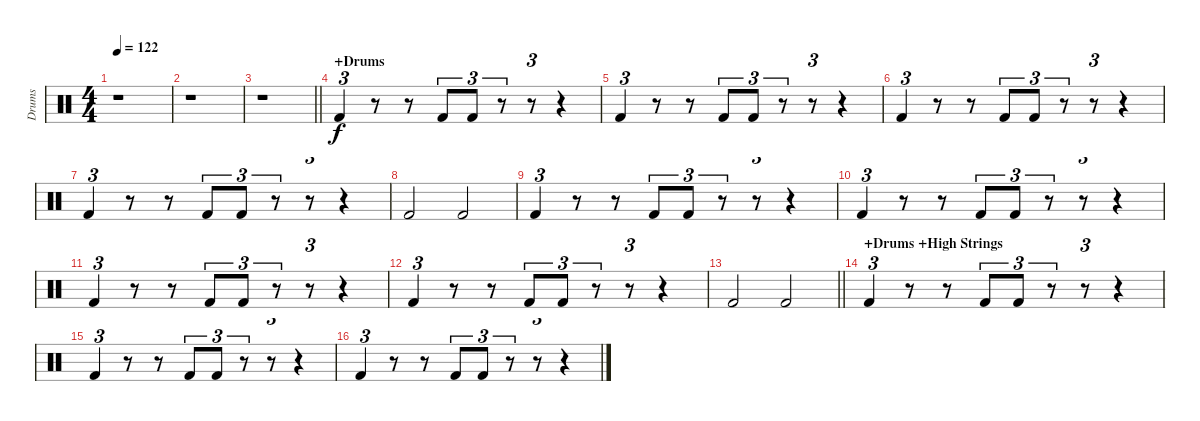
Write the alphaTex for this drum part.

\track ("Drums" "Drums") {instrument percussion}
\staff {score}
\articulation defaults
\ts (4 4)
\tempo 122
\clef neutral
\ks c
r.1{dy f} |
r.1 |
\barLineRight lightlight
r.1 |
\section ("" "+Drums")
"Kick (hit) 2".4{tu (3 2)} r.8 r.8 "Kick (hit) 2".8{tu (3 2)} "Kick (hit) 2".8{tu (3 2)} r.8{tu (3 2)} r.8{tu (3 2)} r.4 |
"Kick (hit) 2".4{tu (3 2)} r.8 r.8 "Kick (hit) 2".8{tu (3 2)} "Kick (hit) 2".8{tu (3 2)} r.8{tu (3 2)} r.8{tu (3 2)} r.4 |
"Kick (hit) 2".4{tu (3 2)} r.8 r.8 "Kick (hit) 2".8{tu (3 2)} "Kick (hit) 2".8{tu (3 2)} r.8{tu (3 2)} r.8{tu (3 2)} r.4 |
"Kick (hit) 2".4{tu (3 2)} r.8 r.8 "Kick (hit) 2".8{tu (3 2)} "Kick (hit) 2".8{tu (3 2)} r.8{tu (3 2)} r.8{tu (3 2)} r.4 |
"Kick (hit) 2".2 "Kick (hit) 2".2 |
"Kick (hit) 2".4{tu (3 2)} r.8 r.8 "Kick (hit) 2".8{tu (3 2)} "Kick (hit) 2".8{tu (3 2)} r.8{tu (3 2)} r.8{tu (3 2)} r.4 |
"Kick (hit) 2".4{tu (3 2)} r.8 r.8 "Kick (hit) 2".8{tu (3 2)} "Kick (hit) 2".8{tu (3 2)} r.8{tu (3 2)} r.8{tu (3 2)} r.4 |
"Kick (hit) 2".4{tu (3 2)} r.8 r.8 "Kick (hit) 2".8{tu (3 2)} "Kick (hit) 2".8{tu (3 2)} r.8{tu (3 2)} r.8{tu (3 2)} r.4 |
"Kick (hit) 2".4{tu (3 2)} r.8 r.8 "Kick (hit) 2".8{tu (3 2)} "Kick (hit) 2".8{tu (3 2)} r.8{tu (3 2)} r.8{tu (3 2)} r.4 |
\barLineRight lightlight "Kick (hit) 2".2 "Kick (hit) 2".2
|
\section ("" "+Drums +High Strings")
"Kick (hit) 2".4{tu (3 2)} r.8 r.8 "Kick (hit) 2".8{tu (3 2)} "Kick (hit) 2".8{tu (3 2)} r.8{tu (3 2)} r.8{tu (3 2)} r.4 |
"Kick (hit) 2".4{tu (3 2)} r.8 r.8 "Kick (hit) 2".8{tu (3 2)} "Kick (hit) 2".8{tu (3 2)} r.8{tu (3 2)} r.8{tu (3 2)} r.4 |
"Kick (hit) 2".4{tu (3 2)} r.8 r.8 "Kick (hit) 2".8{tu (3 2)} "Kick (hit) 2".8{tu (3 2)} r.8{tu (3 2)} r.8{tu (3 2)} r.4
